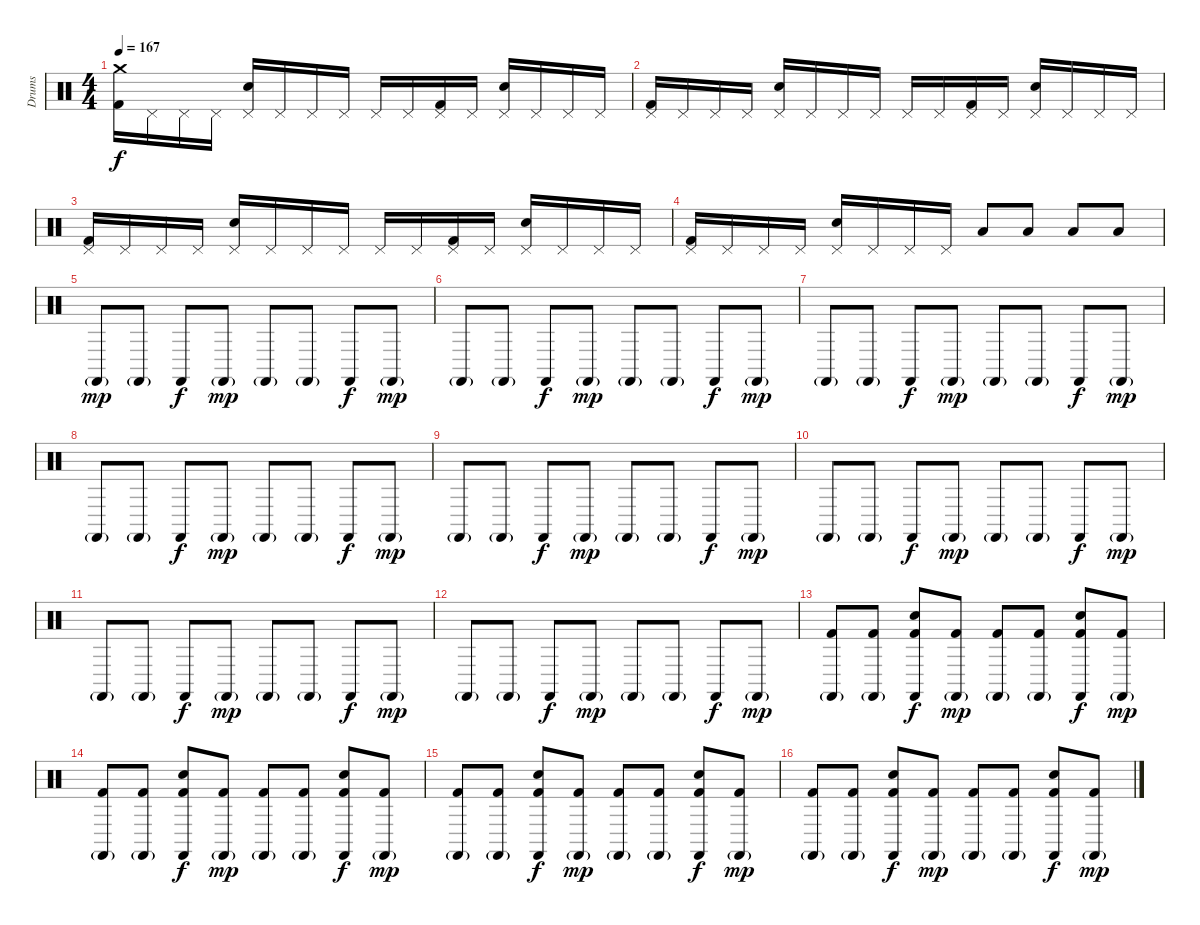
\track ("Drums" "Drums") {instrument percussion}
\staff {score}
\articulation defaults
\ts (4 4)
\tempo 167
\clef neutral
\ks c
("Crash medium (hit)" "Kick (hit) 2").16{dy f} "Pedal Hi-Hat (hit)".16 "Pedal Hi-Hat (hit)".16 "Pedal Hi-Hat (hit)".16 ("Pedal Hi-Hat (hit)" "Snare (hit) 2").16 "Pedal Hi-Hat (hit)".16 "Pedal Hi-Hat (hit)".16 "Pedal Hi-Hat (hit)".16 "Pedal Hi-Hat (hit)".16 "Pedal Hi-Hat (hit)".16 ("Pedal Hi-Hat (hit)" "Kick (hit) 2").16 "Pedal Hi-Hat (hit)".16 ("Pedal Hi-Hat (hit)" "Snare (hit) 2").16 "Pedal Hi-Hat (hit)".16 "Pedal Hi-Hat (hit)".16 "Pedal Hi-Hat (hit)".16 |
("Pedal Hi-Hat (hit)" "Kick (hit) 2").16 "Pedal Hi-Hat (hit)".16 "Pedal Hi-Hat (hit)".16 "Pedal Hi-Hat (hit)".16 ("Pedal Hi-Hat (hit)" "Snare (hit) 2").16 "Pedal Hi-Hat (hit)".16 "Pedal Hi-Hat (hit)".16 "Pedal Hi-Hat (hit)".16 "Pedal Hi-Hat (hit)".16 "Pedal Hi-Hat (hit)".16 ("Pedal Hi-Hat (hit)" "Kick (hit) 2").16 "Pedal Hi-Hat (hit)".16 ("Pedal Hi-Hat (hit)" "Snare (hit) 2").16 "Pedal Hi-Hat (hit)".16 "Pedal Hi-Hat (hit)".16 "Pedal Hi-Hat (hit)".16 |
("Pedal Hi-Hat (hit)" "Kick (hit) 2").16 "Pedal Hi-Hat (hit)".16 "Pedal Hi-Hat (hit)".16 "Pedal Hi-Hat (hit)".16 ("Pedal Hi-Hat (hit)" "Snare (hit) 2").16 "Pedal Hi-Hat (hit)".16 "Pedal Hi-Hat (hit)".16 "Pedal Hi-Hat (hit)".16 "Pedal Hi-Hat (hit)".16 "Pedal Hi-Hat (hit)".16 ("Pedal Hi-Hat (hit)" "Kick (hit) 2").16 "Pedal Hi-Hat (hit)".16 ("Pedal Hi-Hat (hit)" "Snare (hit) 2").16 "Pedal Hi-Hat (hit)".16 "Pedal Hi-Hat (hit)".16 "Pedal Hi-Hat (hit)".16 |
("Pedal Hi-Hat (hit)" "Kick (hit) 2").16 "Pedal Hi-Hat (hit)".16 "Pedal Hi-Hat (hit)".16 "Pedal Hi-Hat (hit)".16 ("Pedal Hi-Hat (hit)" "Snare (hit) 2").16 "Pedal Hi-Hat (hit)".16 "Pedal Hi-Hat (hit)".16 "Pedal Hi-Hat (hit)".16 "Low Tom (hit)".8 "Low Tom (hit)".8 "Low Floor Tom (hit)".8 "Low Floor Tom (hit)".8 |
"Castanets (hit)"{g}.8{dy mp} "Castanets (hit)"{g}.8 "Castanets (hit)".8{dy f} "Castanets (hit)"{g}.8{dy mp} "Castanets (hit)"{g}.8 "Castanets (hit)"{g}.8 "Castanets (hit)".8{dy f} "Castanets (hit)"{g}.8{dy mp} |
"Castanets (hit)"{g}.8 "Castanets (hit)"{g}.8 "Castanets (hit)".8{dy f} "Castanets (hit)"{g}.8{dy mp} "Castanets (hit)"{g}.8 "Castanets (hit)"{g}.8 "Castanets (hit)".8{dy f} "Castanets (hit)"{g}.8{dy mp} |
"Castanets (hit)"{g}.8 "Castanets (hit)"{g}.8 "Castanets (hit)".8{dy f} "Castanets (hit)"{g}.8{dy mp} "Castanets (hit)"{g}.8 "Castanets (hit)"{g}.8 "Castanets (hit)".8{dy f} "Castanets (hit)"{g}.8{dy mp} |
"Castanets (hit)"{g}.8 "Castanets (hit)"{g}.8 "Castanets (hit)".8{dy f} "Castanets (hit)"{g}.8{dy mp} "Castanets (hit)"{g}.8 "Castanets (hit)"{g}.8 "Castanets (hit)".8{dy f} "Castanets (hit)"{g}.8{dy mp} |
"Castanets (hit)"{g}.8 "Castanets (hit)"{g}.8 "Castanets (hit)".8{dy f} "Castanets (hit)"{g}.8{dy mp} "Castanets (hit)"{g}.8 "Castanets (hit)"{g}.8 "Castanets (hit)".8{dy f} "Castanets (hit)"{g}.8{dy mp} |
"Castanets (hit)"{g}.8 "Castanets (hit)"{g}.8 "Castanets (hit)".8{dy f} "Castanets (hit)"{g}.8{dy mp} "Castanets (hit)"{g}.8 "Castanets (hit)"{g}.8 "Castanets (hit)".8{dy f} "Castanets (hit)"{g}.8{dy mp} |
"Castanets (hit)"{g}.8 "Castanets (hit)"{g}.8 "Castanets (hit)".8{dy f} "Castanets (hit)"{g}.8{dy mp} "Castanets (hit)"{g}.8 "Castanets (hit)"{g}.8 "Castanets (hit)".8{dy f} "Castanets (hit)"{g}.8{dy mp} |
"Castanets (hit)"{g}.8 "Castanets (hit)"{g}.8 "Castanets (hit)".8{dy f} "Castanets (hit)"{g}.8{dy mp} "Castanets (hit)"{g}.8 "Castanets (hit)"{g}.8 "Castanets (hit)".8{dy f} "Castanets (hit)"{g}.8{dy mp} |
("Castanets (hit)"{g} "Kick (hit) 2").8 ("Castanets (hit)"{g} "Kick (hit) 2").8 ("Castanets (hit)" "Snare (hit) 2" "Kick (hit) 2").8{dy f} ("Castanets (hit)"{g} "Kick (hit) 2").8{dy mp} ("Castanets (hit)"{g} "Kick (hit) 2").8 ("Castanets (hit)"{g} "Kick (hit) 2").8 ("Castanets (hit)" "Snare (hit) 2" "Kick (hit) 2").8{dy f} ("Castanets (hit)"{g} "Kick (hit) 2").8{dy mp} |
("Castanets (hit)"{g} "Kick (hit) 2").8 ("Castanets (hit)"{g} "Kick (hit) 2").8 ("Castanets (hit)" "Snare (hit) 2" "Kick (hit) 2").8{dy f} ("Castanets (hit)"{g} "Kick (hit) 2").8{dy mp} ("Castanets (hit)"{g} "Kick (hit) 2").8 ("Castanets (hit)"{g} "Kick (hit) 2").8 ("Castanets (hit)" "Snare (hit) 2" "Kick (hit) 2").8{dy f} ("Castanets (hit)"{g} "Kick (hit) 2").8{dy mp} |
("Castanets (hit)"{g} "Kick (hit) 2").8 ("Castanets (hit)"{g} "Kick (hit) 2").8 ("Castanets (hit)" "Snare (hit) 2" "Kick (hit) 2").8{dy f} ("Castanets (hit)"{g} "Kick (hit) 2").8{dy mp} ("Castanets (hit)"{g} "Kick (hit) 2").8 ("Castanets (hit)"{g} "Kick (hit) 2").8 ("Castanets (hit)" "Snare (hit) 2" "Kick (hit) 2").8{dy f} ("Castanets (hit)"{g} "Kick (hit) 2").8{dy mp} |
("Castanets (hit)"{g} "Kick (hit) 2").8 ("Castanets (hit)"{g} "Kick (hit) 2").8 ("Castanets (hit)" "Snare (hit) 2" "Kick (hit) 2").8{dy f} ("Castanets (hit)"{g} "Kick (hit) 2").8{dy mp} ("Castanets (hit)"{g} "Kick (hit) 2").8 ("Castanets (hit)"{g} "Kick (hit) 2").8 ("Castanets (hit)" "Snare (hit) 2" "Kick (hit) 2").8{dy f} ("Castanets (hit)"{g} "Kick (hit) 2").8{dy mp}
